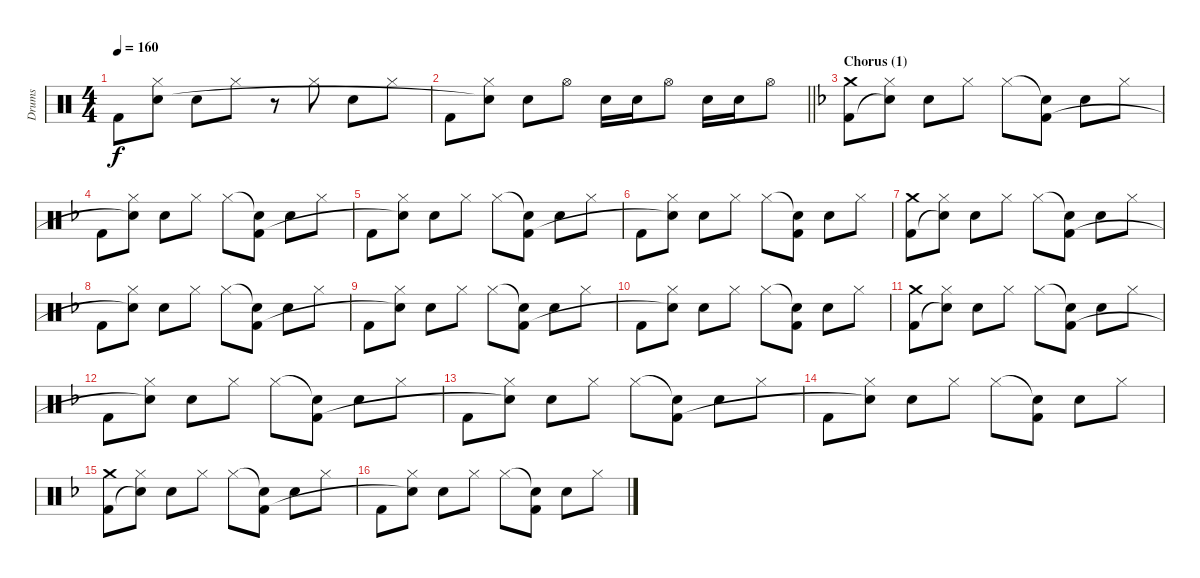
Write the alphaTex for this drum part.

\track ("Drums" "Drums") {instrument percussion}
\staff {score}
\articulation defaults
\ts (4 4)
\tempo 160
\clef neutral
\ks c "Kick (hit) 2".8{dy f}
("Hi-Hat (closed)" "Snare (hit)"{t}).8 "Electric Snare (hit)".8 "Hi-Hat (closed)".8 r.8 "Hi-Hat (closed)".8 "Electric Snare (hit)".8 "Hi-Hat (closed)".8 |
\barLineRight lightlight "Kick (hit) 2".8
("Hi-Hat (closed)" "Snare (hit)"{t}).8 "Electric Snare (hit)".8 "Hi-Hat (open)".8 "Electric Snare (hit)".16 "Electric Snare (hit)".16 "Hi-Hat (open)".8 "Electric Snare (hit)".16 "Electric Snare (hit)".16 "Hi-Hat (open)".8 |
\section ("" "Chorus (1)")
\ks f
("Crash medium (hit)" "Kick (hit) 2").8 ("Hi-Hat (closed)" "Snare (hit)"{t}).8 "Electric Snare (hit)".8 "Hi-Hat (closed)".8 "Hi-Hat (closed)".8 ("Snare (hit)"{t} "Kick (hit) 2").8 "Electric Snare (hit)".8 "Hi-Hat (closed)".8 |
"Kick (hit) 2".8 ("Hi-Hat (closed)" "Snare (hit)"{t}).8 "Electric Snare (hit)".8 "Hi-Hat (closed)".8 "Hi-Hat (closed)".8 ("Snare (hit)"{t} "Kick (hit) 2").8 "Electric Snare (hit)".8 "Hi-Hat (closed)".8 |
"Kick (hit) 2".8 ("Hi-Hat (closed)" "Snare (hit)"{t}).8 "Electric Snare (hit)".8 "Hi-Hat (closed)".8 "Hi-Hat (closed)".8 ("Snare (hit)"{t} "Kick (hit) 2").8 "Electric Snare (hit)".8 "Hi-Hat (closed)".8 |
"Kick (hit) 2".8 ("Hi-Hat (closed)" "Snare (hit)"{t}).8 "Electric Snare (hit)".8 "Hi-Hat (closed)".8 "Hi-Hat (closed)".8 ("Snare (hit)"{t} "Kick (hit) 2").8 "Electric Snare (hit)".8 "Hi-Hat (closed)".8 |
("Crash medium (hit)" "Kick (hit) 2").8 ("Hi-Hat (closed)" "Snare (hit)"{t}).8 "Electric Snare (hit)".8 "Hi-Hat (closed)".8 "Hi-Hat (closed)".8 ("Snare (hit)"{t} "Kick (hit) 2").8 "Electric Snare (hit)".8 "Hi-Hat (closed)".8 |
"Kick (hit) 2".8 ("Hi-Hat (closed)" "Snare (hit)"{t}).8 "Electric Snare (hit)".8 "Hi-Hat (closed)".8 "Hi-Hat (closed)".8 ("Snare (hit)"{t} "Kick (hit) 2").8 "Electric Snare (hit)".8 "Hi-Hat (closed)".8 |
"Kick (hit) 2".8 ("Hi-Hat (closed)" "Snare (hit)"{t}).8 "Electric Snare (hit)".8 "Hi-Hat (closed)".8 "Hi-Hat (closed)".8 ("Snare (hit)"{t} "Kick (hit) 2").8 "Electric Snare (hit)".8 "Hi-Hat (closed)".8 |
"Kick (hit) 2".8 ("Hi-Hat (closed)" "Snare (hit)"{t}).8 "Electric Snare (hit)".8 "Hi-Hat (closed)".8 "Hi-Hat (closed)".8 ("Snare (hit)"{t} "Kick (hit) 2").8 "Electric Snare (hit)".8 "Hi-Hat (closed)".8 |
("Crash medium (hit)" "Kick (hit) 2").8 ("Hi-Hat (closed)" "Snare (hit)"{t}).8 "Electric Snare (hit)".8 "Hi-Hat (closed)".8 "Hi-Hat (closed)".8 ("Snare (hit)"{t} "Kick (hit) 2").8 "Electric Snare (hit)".8 "Hi-Hat (closed)".8 |
"Kick (hit) 2".8 ("Hi-Hat (closed)" "Snare (hit)"{t}).8 "Electric Snare (hit)".8 "Hi-Hat (closed)".8 "Hi-Hat (closed)".8 ("Snare (hit)"{t} "Kick (hit) 2").8 "Electric Snare (hit)".8 "Hi-Hat (closed)".8 |
"Kick (hit) 2".8 ("Hi-Hat (closed)" "Snare (hit)"{t}).8 "Electric Snare (hit)".8 "Hi-Hat (closed)".8 "Hi-Hat (closed)".8 ("Snare (hit)"{t} "Kick (hit) 2").8 "Electric Snare (hit)".8 "Hi-Hat (closed)".8 |
"Kick (hit) 2".8 ("Hi-Hat (closed)" "Snare (hit)"{t}).8 "Electric Snare (hit)".8 "Hi-Hat (closed)".8 "Hi-Hat (closed)".8 ("Snare (hit)"{t} "Kick (hit) 2").8 "Electric Snare (hit)".8 "Hi-Hat (closed)".8 |
("Crash medium (hit)" "Kick (hit) 2").8 ("Hi-Hat (closed)" "Snare (hit)"{t}).8 "Electric Snare (hit)".8 "Hi-Hat (closed)".8 "Hi-Hat (closed)".8 ("Snare (hit)"{t} "Kick (hit) 2").8 "Electric Snare (hit)".8 "Hi-Hat (closed)".8 |
"Kick (hit) 2".8 ("Hi-Hat (closed)" "Snare (hit)"{t}).8 "Electric Snare (hit)".8 "Hi-Hat (closed)".8 "Hi-Hat (closed)".8 ("Snare (hit)"{t} "Kick (hit) 2").8 "Electric Snare (hit)".8 "Hi-Hat (closed)".8
